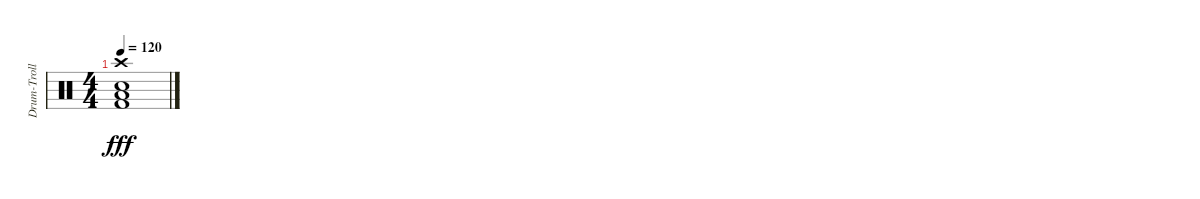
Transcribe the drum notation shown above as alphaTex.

\track ("Drum-Troll" "Drum-Troll") {instrument percussion}
\staff {score}
\articulation defaults
\ts (4 4)
\tempo 120
\clef neutral
\ks c
("Electric Snare (hit)" "Crash high (hit)" "Kick (hit) 2" "Low Floor Tom (hit)").1{dy fff}
